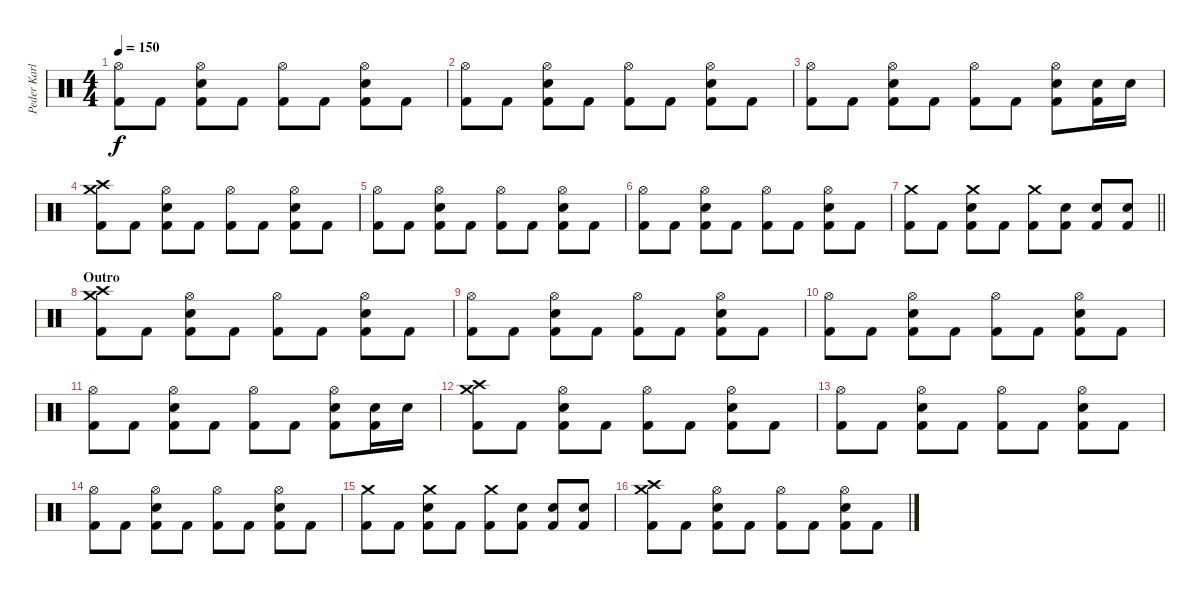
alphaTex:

\track ("Peder Karlsson" "Peder Karl") {instrument percussion}
\staff {score}
\articulation defaults
\ts (4 4)
\tempo 150
\clef neutral
\ks c
("Hi-Hat (open)" "Kick (hit) 2").8{dy f} "Kick (hit) 2".8 ("Hi-Hat (open)" "Snare (hit) 2" "Kick (hit) 2").8 "Kick (hit) 2".8 ("Hi-Hat (open)" "Kick (hit) 2").8 "Kick (hit) 2".8 ("Hi-Hat (open)" "Snare (hit) 2" "Kick (hit) 2").8 "Kick (hit) 2".8 |
("Hi-Hat (open)" "Kick (hit) 2").8 "Kick (hit) 2".8 ("Hi-Hat (open)" "Snare (hit) 2" "Kick (hit) 2").8 "Kick (hit) 2".8 ("Hi-Hat (open)" "Kick (hit) 2").8 "Kick (hit) 2".8 ("Hi-Hat (open)" "Snare (hit) 2" "Kick (hit) 2").8 "Kick (hit) 2".8 |
("Hi-Hat (open)" "Kick (hit) 2").8 "Kick (hit) 2".8 ("Hi-Hat (open)" "Snare (hit) 2" "Kick (hit) 2").8 "Kick (hit) 2".8 ("Hi-Hat (open)" "Kick (hit) 2").8 "Kick (hit) 2".8 ("Hi-Hat (open)" "Snare (hit) 2" "Kick (hit) 2").8 ("Snare (hit) 2" "Kick (hit) 2").16 "Snare (hit) 2".16 |
("Crash medium (hit)" "Crash high (hit)" "Kick (hit) 2").8 "Kick (hit) 2".8 ("Hi-Hat (open)" "Snare (hit) 2" "Kick (hit) 2").8 "Kick (hit) 2".8 ("Hi-Hat (open)" "Kick (hit) 2").8 "Kick (hit) 2".8 ("Hi-Hat (open)" "Snare (hit) 2" "Kick (hit) 2").8 "Kick (hit) 2".8 |
("Hi-Hat (open)" "Kick (hit) 2").8 "Kick (hit) 2".8 ("Hi-Hat (open)" "Snare (hit) 2" "Kick (hit) 2").8 "Kick (hit) 2".8 ("Hi-Hat (open)" "Kick (hit) 2").8 "Kick (hit) 2".8 ("Hi-Hat (open)" "Snare (hit) 2" "Kick (hit) 2").8 "Kick (hit) 2".8 |
("Hi-Hat (open)" "Kick (hit) 2").8 "Kick (hit) 2".8 ("Hi-Hat (open)" "Snare (hit) 2" "Kick (hit) 2").8 "Kick (hit) 2".8 ("Hi-Hat (open)" "Kick (hit) 2").8 "Kick (hit) 2".8 ("Hi-Hat (open)" "Snare (hit) 2" "Kick (hit) 2").8 "Kick (hit) 2".8 |
\barLineRight lightlight
("Crash medium (hit)" "Kick (hit) 2").8 "Kick (hit) 2".8 ("Crash medium (hit)" "Snare (hit) 2" "Kick (hit) 2").8 "Kick (hit) 2".8 ("Crash medium (hit)" "Kick (hit) 2").8 ("Snare (hit) 2" "Kick (hit) 2").8 ("Snare (hit) 2" "Kick (hit) 2").8 ("Snare (hit) 2" "Kick (hit) 2").8 |
\section ("" "Outro")
("Crash medium (hit)" "Crash high (hit)" "Kick (hit) 2").8 "Kick (hit) 2".8 ("Hi-Hat (open)" "Snare (hit) 2" "Kick (hit) 2").8 "Kick (hit) 2".8 ("Hi-Hat (open)" "Kick (hit) 2").8 "Kick (hit) 2".8 ("Hi-Hat (open)" "Snare (hit) 2" "Kick (hit) 2").8 "Kick (hit) 2".8 |
("Hi-Hat (open)" "Kick (hit) 2").8 "Kick (hit) 2".8 ("Hi-Hat (open)" "Snare (hit) 2" "Kick (hit) 2").8 "Kick (hit) 2".8 ("Hi-Hat (open)" "Kick (hit) 2").8 "Kick (hit) 2".8 ("Hi-Hat (open)" "Snare (hit) 2" "Kick (hit) 2").8 "Kick (hit) 2".8 |
("Hi-Hat (open)" "Kick (hit) 2").8 "Kick (hit) 2".8 ("Hi-Hat (open)" "Snare (hit) 2" "Kick (hit) 2").8 "Kick (hit) 2".8 ("Hi-Hat (open)" "Kick (hit) 2").8 "Kick (hit) 2".8 ("Hi-Hat (open)" "Snare (hit) 2" "Kick (hit) 2").8 "Kick (hit) 2".8 |
("Hi-Hat (open)" "Kick (hit) 2").8 "Kick (hit) 2".8 ("Hi-Hat (open)" "Snare (hit) 2" "Kick (hit) 2").8 "Kick (hit) 2".8 ("Hi-Hat (open)" "Kick (hit) 2").8 "Kick (hit) 2".8 ("Hi-Hat (open)" "Snare (hit) 2" "Kick (hit) 2").8 ("Snare (hit) 2" "Kick (hit) 2").16 "Snare (hit) 2".16 |
("Crash medium (hit)" "Crash high (hit)" "Kick (hit) 2").8 "Kick (hit) 2".8 ("Hi-Hat (open)" "Snare (hit) 2" "Kick (hit) 2").8 "Kick (hit) 2".8 ("Hi-Hat (open)" "Kick (hit) 2").8 "Kick (hit) 2".8 ("Hi-Hat (open)" "Snare (hit) 2" "Kick (hit) 2").8 "Kick (hit) 2".8 |
("Hi-Hat (open)" "Kick (hit) 2").8 "Kick (hit) 2".8 ("Hi-Hat (open)" "Snare (hit) 2" "Kick (hit) 2").8 "Kick (hit) 2".8 ("Hi-Hat (open)" "Kick (hit) 2").8 "Kick (hit) 2".8 ("Hi-Hat (open)" "Snare (hit) 2" "Kick (hit) 2").8 "Kick (hit) 2".8 |
("Hi-Hat (open)" "Kick (hit) 2").8 "Kick (hit) 2".8 ("Hi-Hat (open)" "Snare (hit) 2" "Kick (hit) 2").8 "Kick (hit) 2".8 ("Hi-Hat (open)" "Kick (hit) 2").8 "Kick (hit) 2".8 ("Hi-Hat (open)" "Snare (hit) 2" "Kick (hit) 2").8 "Kick (hit) 2".8 |
("Crash medium (hit)" "Kick (hit) 2").8 "Kick (hit) 2".8 ("Crash medium (hit)" "Snare (hit) 2" "Kick (hit) 2").8 "Kick (hit) 2".8 ("Crash medium (hit)" "Kick (hit) 2").8 ("Snare (hit) 2" "Kick (hit) 2").8 ("Snare (hit) 2" "Kick (hit) 2").8 ("Snare (hit) 2" "Kick (hit) 2").8 |
("Crash medium (hit)" "Crash high (hit)" "Kick (hit) 2").8 "Kick (hit) 2".8 ("Hi-Hat (open)" "Snare (hit) 2" "Kick (hit) 2").8 "Kick (hit) 2".8 ("Hi-Hat (open)" "Kick (hit) 2").8 "Kick (hit) 2".8 ("Hi-Hat (open)" "Snare (hit) 2" "Kick (hit) 2").8 "Kick (hit) 2".8
